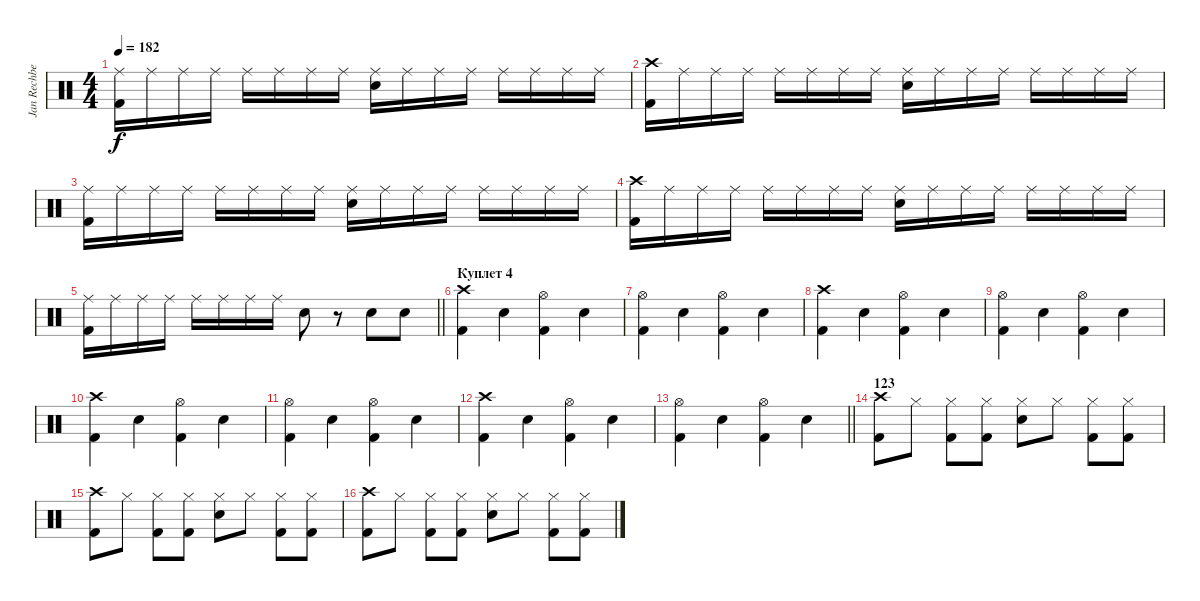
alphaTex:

\track ("Jan Rechberger" "Jan Rechbe") {instrument percussion}
\staff {score}
\articulation defaults
\ts (4 4)
\tempo 182
\clef neutral
\ks c
("Ride (middle)" "Kick (hit) 2").16{dy f} "Ride (middle)".16 "Ride (middle)".16 "Ride (middle)".16 "Ride (middle)".16 "Ride (middle)".16 "Ride (middle)".16 "Ride (middle)".16 ("Electric Snare (hit)" "Ride (middle)").16 "Ride (middle)".16 "Ride (middle)".16 "Ride (middle)".16 "Ride (middle)".16 "Ride (middle)".16 "Ride (middle)".16 "Ride (middle)".16 |
("Crash high (hit)" "Kick (hit) 2").16 "Ride (middle)".16 "Ride (middle)".16 "Ride (middle)".16 "Ride (middle)".16 "Ride (middle)".16 "Ride (middle)".16 "Ride (middle)".16 ("Electric Snare (hit)" "Ride (middle)").16 "Ride (middle)".16 "Ride (middle)".16 "Ride (middle)".16 "Ride (middle)".16 "Ride (middle)".16 "Ride (middle)".16 "Ride (middle)".16 |
("Ride (middle)" "Kick (hit) 2").16 "Ride (middle)".16 "Ride (middle)".16 "Ride (middle)".16 "Ride (middle)".16 "Ride (middle)".16 "Ride (middle)".16 "Ride (middle)".16 ("Electric Snare (hit)" "Ride (middle)").16 "Ride (middle)".16 "Ride (middle)".16 "Ride (middle)".16 "Ride (middle)".16 "Ride (middle)".16 "Ride (middle)".16 "Ride (middle)".16 |
("Crash high (hit)" "Kick (hit) 2").16 "Ride (middle)".16 "Ride (middle)".16 "Ride (middle)".16 "Ride (middle)".16 "Ride (middle)".16 "Ride (middle)".16 "Ride (middle)".16 ("Electric Snare (hit)" "Ride (middle)").16 "Ride (middle)".16 "Ride (middle)".16 "Ride (middle)".16 "Ride (middle)".16 "Ride (middle)".16 "Ride (middle)".16 "Ride (middle)".16 |
\barLineRight lightlight
("Ride (middle)" "Kick (hit) 2").16 "Ride (middle)".16 "Ride (middle)".16 "Ride (middle)".16 "Ride (middle)".16 "Ride (middle)".16 "Ride (middle)".16 "Ride (middle)".16 "Electric Snare (hit)".8 r.8 "Electric Snare (hit)".8 "Electric Snare (hit)".8 |
\section ("" "Куплет 4")
("Crash high (hit)" "Kick (hit) 2").4 "Electric Snare (hit)".4 ("Hi-Hat (open)" "Kick (hit) 2").4 "Electric Snare (hit)".4 |
("Hi-Hat (open)" "Kick (hit) 2").4 "Electric Snare (hit)".4 ("Hi-Hat (open)" "Kick (hit) 2").4 "Electric Snare (hit)".4 |
("Crash high (hit)" "Kick (hit) 2").4 "Electric Snare (hit)".4 ("Hi-Hat (open)" "Kick (hit) 2").4 "Electric Snare (hit)".4 |
("Hi-Hat (open)" "Kick (hit) 2").4 "Electric Snare (hit)".4 ("Hi-Hat (open)" "Kick (hit) 2").4 "Electric Snare (hit)".4 |
("Crash high (hit)" "Kick (hit) 2").4 "Electric Snare (hit)".4 ("Hi-Hat (open)" "Kick (hit) 2").4 "Electric Snare (hit)".4 |
("Hi-Hat (open)" "Kick (hit) 2").4 "Electric Snare (hit)".4 ("Hi-Hat (open)" "Kick (hit) 2").4 "Electric Snare (hit)".4 |
("Crash high (hit)" "Kick (hit) 2").4 "Electric Snare (hit)".4 ("Hi-Hat (open)" "Kick (hit) 2").4 "Electric Snare (hit)".4 |
\barLineRight lightlight
("Hi-Hat (open)" "Kick (hit) 2").4 "Electric Snare (hit)".4 ("Hi-Hat (open)" "Kick (hit) 2").4 "Electric Snare (hit)".4 |
\section ("" "123")
("Crash high (hit)" "Kick (hit) 2").8 "Hi-Hat (closed)".8 ("Hi-Hat (closed)" "Kick (hit) 2").8 ("Hi-Hat (closed)" "Kick (hit) 2").8 ("Electric Snare (hit)" "Hi-Hat (closed)").8 "Hi-Hat (closed)".8 ("Hi-Hat (closed)" "Kick (hit) 2").8 ("Hi-Hat (closed)" "Kick (hit) 2").8 |
("Crash high (hit)" "Kick (hit) 2").8 "Hi-Hat (closed)".8 ("Hi-Hat (closed)" "Kick (hit) 2").8 ("Hi-Hat (closed)" "Kick (hit) 2").8 ("Electric Snare (hit)" "Hi-Hat (closed)").8 "Hi-Hat (closed)".8 ("Hi-Hat (closed)" "Kick (hit) 2").8 ("Hi-Hat (closed)" "Kick (hit) 2").8 |
("Crash high (hit)" "Kick (hit) 2").8 "Hi-Hat (closed)".8 ("Hi-Hat (closed)" "Kick (hit) 2").8 ("Hi-Hat (closed)" "Kick (hit) 2").8 ("Electric Snare (hit)" "Hi-Hat (closed)").8 "Hi-Hat (closed)".8 ("Hi-Hat (closed)" "Kick (hit) 2").8 ("Hi-Hat (closed)" "Kick (hit) 2").8
